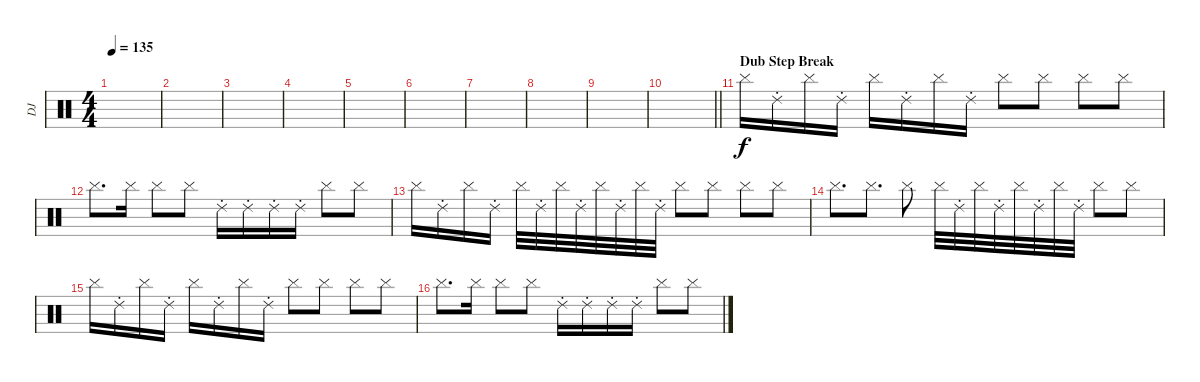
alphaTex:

\track ("DJ" "DJ") {instrument percussion}
\staff {score}
\articulation defaults
\ts (4 4)
\tempo 135
\clef neutral
\ks c
|
|
|
|
|
|
|
|
|
\barLineRight lightlight
|
\section ("" "Dub Step Break")
"Cymbal (hit)".16{volume 15} "Ride (choke) 2".16 "Cymbal (hit)".16 "Ride (choke) 2".16 "Cymbal (hit)".16 "Ride (choke) 2".16 "Cymbal (hit)".16 "Ride (choke) 2".16 "Cymbal (hit)".8 "Cymbal (hit)".8 "Cymbal (hit)".8 "Cymbal (hit)".8 |
"Cymbal (hit)".8{d} "Cymbal (hit)".16 "Cymbal (hit)".8 "Cymbal (hit)".8 "Ride (choke) 2".16 "Ride (choke) 2".16 "Ride (choke) 2".16 "Ride (choke) 2".16 "Cymbal (hit)".8 "Cymbal (hit)".8 |
"Cymbal (hit)".16 "Ride (choke) 2".16 "Cymbal (hit)".16 "Ride (choke) 2".16 "Cymbal (hit)".32 "Ride (choke) 2".32 "Cymbal (hit)".32 "Ride (choke) 2".32 "Cymbal (hit)".32 "Ride (choke) 2".32 "Cymbal (hit)".32 "Ride (choke) 2".32 "Cymbal (hit)".8 "Cymbal (hit)".8 "Cymbal (hit)".8 "Cymbal (hit)".8 |
"Cymbal (hit)".8{d} "Cymbal (hit)".8{d} "Cymbal (hit)".8 "Cymbal (hit)".32 "Ride (choke) 2".32 "Cymbal (hit)".32 "Ride (choke) 2".32 "Cymbal (hit)".32 "Ride (choke) 2".32 "Cymbal (hit)".32 "Ride (choke) 2".32 "Cymbal (hit)".8 "Cymbal (hit)".8 |
"Cymbal (hit)".16 "Ride (choke) 2".16 "Cymbal (hit)".16 "Ride (choke) 2".16 "Cymbal (hit)".16 "Ride (choke) 2".16 "Cymbal (hit)".16 "Ride (choke) 2".16 "Cymbal (hit)".8 "Cymbal (hit)".8 "Cymbal (hit)".8 "Cymbal (hit)".8 |
"Cymbal (hit)".8{d} "Cymbal (hit)".16 "Cymbal (hit)".8 "Cymbal (hit)".8 "Ride (choke) 2".16 "Ride (choke) 2".16 "Ride (choke) 2".16 "Ride (choke) 2".16 "Cymbal (hit)".8 "Cymbal (hit)".8
